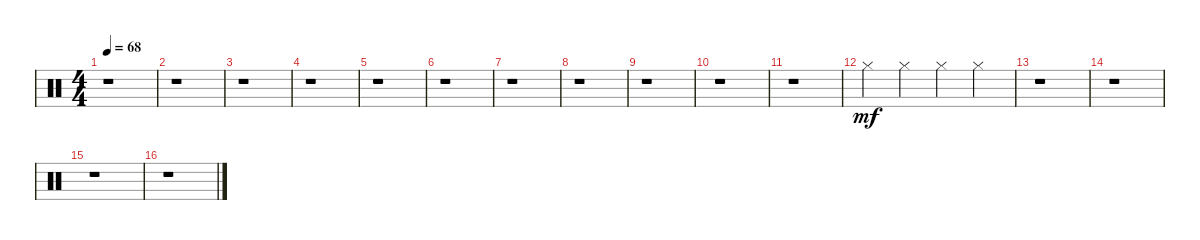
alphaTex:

\track "" {instrument percussion}
\staff {score}
\articulation defaults
\ts (4 4)
\tempo 68
\clef neutral
\ks c
r.1{dy mf} |
r.1 |
r.1 |
r.1 |
r.1 |
r.1 |
r.1 |
r.1 |
r.1 |
r.1 |
r.1 |
"Hi-Hat (closed)".4 "Hi-Hat (closed)".4 "Hi-Hat (closed)".4 "Hi-Hat (closed)".4 |
r.1 |
r.1 |
r.1 |
r.1
